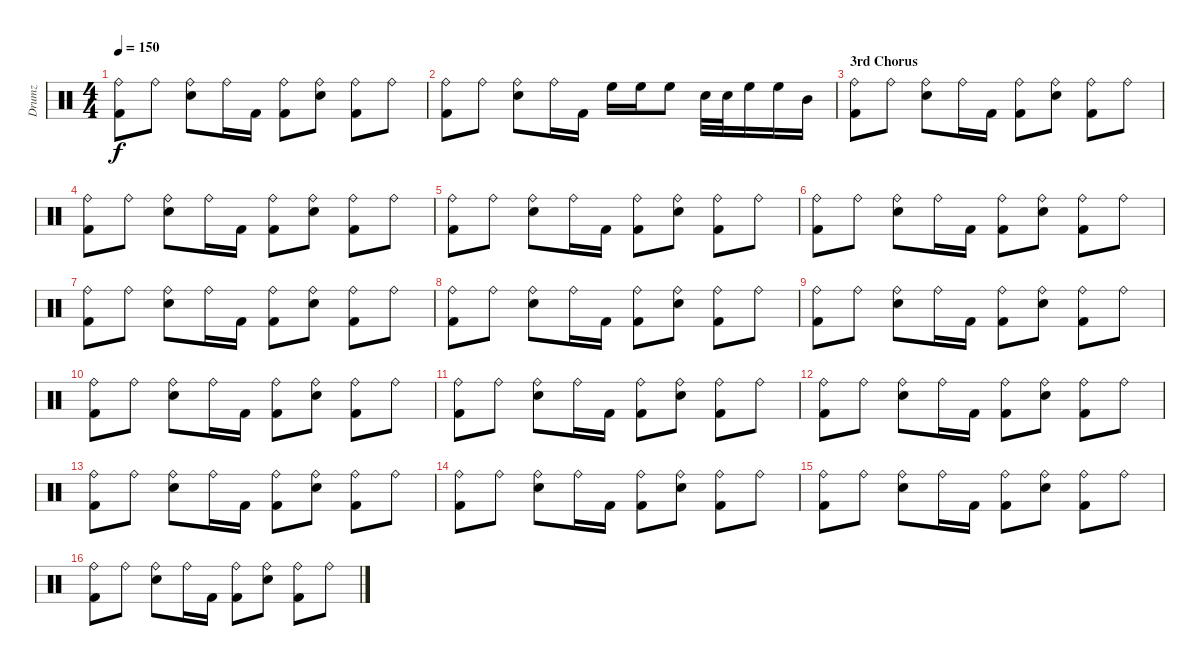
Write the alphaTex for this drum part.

\track ("Drumz" "Drumz") {instrument percussion}
\staff {score}
\articulation defaults
\ts (4 4)
\tempo 150
\clef neutral
\ks c
("Ride (bell)" "Kick (hit) 2").8{dy f} "Ride (bell)".8 ("Ride (bell)" "Snare (hit) 2").8 "Ride (bell)".16 "Kick (hit) 2".16 ("Ride (bell)" "Kick (hit) 2").8 ("Ride (bell)" "Snare (hit) 2").8 ("Ride (bell)" "Kick (hit) 2").8 "Ride (bell)".8 |
("Ride (bell)" "Kick (hit) 2").8 "Ride (bell)".8 ("Ride (bell)" "Snare (hit) 2").8 "Ride (bell)".16 "Kick (hit) 2".16 "High Floor Tom (hit)".16 "High Floor Tom (hit)".16 "High Floor Tom (hit)".8 "Snare (hit) 2".32 "Snare (hit) 2".32 "High Floor Tom (hit)".16 "High Floor Tom (hit)".16 "Mid Tom (hit)".16 |
\section ("" "3rd Chorus")
("Ride (bell)" "Kick (hit) 2").8 "Ride (bell)".8 ("Ride (bell)" "Snare (hit) 2").8 "Ride (bell)".16 "Kick (hit) 2".16 ("Ride (bell)" "Kick (hit) 2").8 ("Ride (bell)" "Snare (hit) 2").8 ("Ride (bell)" "Kick (hit) 2").8 "Ride (bell)".8 |
("Ride (bell)" "Kick (hit) 2").8 "Ride (bell)".8 ("Ride (bell)" "Snare (hit) 2").8 "Ride (bell)".16 "Kick (hit) 2".16 ("Ride (bell)" "Kick (hit) 2").8 ("Ride (bell)" "Snare (hit) 2").8 ("Ride (bell)" "Kick (hit) 2").8 "Ride (bell)".8 |
("Ride (bell)" "Kick (hit) 2").8 "Ride (bell)".8 ("Ride (bell)" "Snare (hit) 2").8 "Ride (bell)".16 "Kick (hit) 2".16 ("Ride (bell)" "Kick (hit) 2").8 ("Ride (bell)" "Snare (hit) 2").8 ("Ride (bell)" "Kick (hit) 2").8 "Ride (bell)".8 |
("Ride (bell)" "Kick (hit) 2").8 "Ride (bell)".8 ("Ride (bell)" "Snare (hit) 2").8 "Ride (bell)".16 "Kick (hit) 2".16 ("Ride (bell)" "Kick (hit) 2").8 ("Ride (bell)" "Snare (hit) 2").8 ("Ride (bell)" "Kick (hit) 2").8 "Ride (bell)".8 |
("Ride (bell)" "Kick (hit) 2").8 "Ride (bell)".8 ("Ride (bell)" "Snare (hit) 2").8 "Ride (bell)".16 "Kick (hit) 2".16 ("Ride (bell)" "Kick (hit) 2").8 ("Ride (bell)" "Snare (hit) 2").8 ("Ride (bell)" "Kick (hit) 2").8 "Ride (bell)".8 |
("Ride (bell)" "Kick (hit) 2").8 "Ride (bell)".8 ("Ride (bell)" "Snare (hit) 2").8 "Ride (bell)".16 "Kick (hit) 2".16 ("Ride (bell)" "Kick (hit) 2").8 ("Ride (bell)" "Snare (hit) 2").8 ("Ride (bell)" "Kick (hit) 2").8 "Ride (bell)".8 |
("Ride (bell)" "Kick (hit) 2").8 "Ride (bell)".8 ("Ride (bell)" "Snare (hit) 2").8 "Ride (bell)".16 "Kick (hit) 2".16 ("Ride (bell)" "Kick (hit) 2").8 ("Ride (bell)" "Snare (hit) 2").8 ("Ride (bell)" "Kick (hit) 2").8 "Ride (bell)".8 |
("Ride (bell)" "Kick (hit) 2").8 "Ride (bell)".8 ("Ride (bell)" "Snare (hit) 2").8 "Ride (bell)".16 "Kick (hit) 2".16 ("Ride (bell)" "Kick (hit) 2").8 ("Ride (bell)" "Snare (hit) 2").8 ("Ride (bell)" "Kick (hit) 2").8 "Ride (bell)".8 |
("Ride (bell)" "Kick (hit) 2").8 "Ride (bell)".8 ("Ride (bell)" "Snare (hit) 2").8 "Ride (bell)".16 "Kick (hit) 2".16 ("Ride (bell)" "Kick (hit) 2").8 ("Ride (bell)" "Snare (hit) 2").8 ("Ride (bell)" "Kick (hit) 2").8 "Ride (bell)".8 |
("Ride (bell)" "Kick (hit) 2").8 "Ride (bell)".8 ("Ride (bell)" "Snare (hit) 2").8 "Ride (bell)".16 "Kick (hit) 2".16 ("Ride (bell)" "Kick (hit) 2").8 ("Ride (bell)" "Snare (hit) 2").8 ("Ride (bell)" "Kick (hit) 2").8 "Ride (bell)".8 |
("Ride (bell)" "Kick (hit) 2").8 "Ride (bell)".8 ("Ride (bell)" "Snare (hit) 2").8 "Ride (bell)".16 "Kick (hit) 2".16 ("Ride (bell)" "Kick (hit) 2").8 ("Ride (bell)" "Snare (hit) 2").8 ("Ride (bell)" "Kick (hit) 2").8 "Ride (bell)".8 |
("Ride (bell)" "Kick (hit) 2").8 "Ride (bell)".8 ("Ride (bell)" "Snare (hit) 2").8 "Ride (bell)".16 "Kick (hit) 2".16 ("Ride (bell)" "Kick (hit) 2").8 ("Ride (bell)" "Snare (hit) 2").8 ("Ride (bell)" "Kick (hit) 2").8 "Ride (bell)".8 |
("Ride (bell)" "Kick (hit) 2").8 "Ride (bell)".8 ("Ride (bell)" "Snare (hit) 2").8 "Ride (bell)".16 "Kick (hit) 2".16 ("Ride (bell)" "Kick (hit) 2").8 ("Ride (bell)" "Snare (hit) 2").8 ("Ride (bell)" "Kick (hit) 2").8 "Ride (bell)".8 |
("Ride (bell)" "Kick (hit) 2").8 "Ride (bell)".8 ("Ride (bell)" "Snare (hit) 2").8 "Ride (bell)".16 "Kick (hit) 2".16 ("Ride (bell)" "Kick (hit) 2").8 ("Ride (bell)" "Snare (hit) 2").8 ("Ride (bell)" "Kick (hit) 2").8 "Ride (bell)".8
